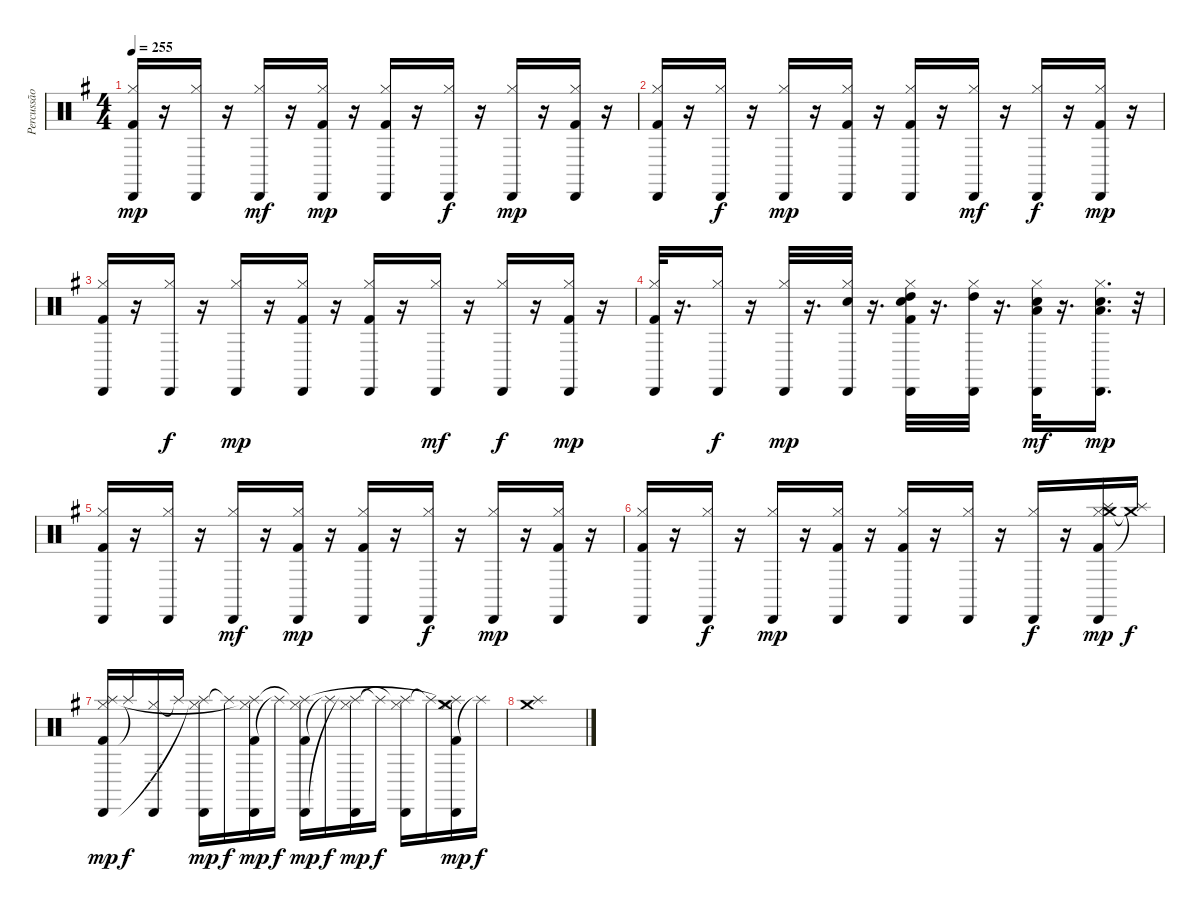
\track ("Percussão" "Percussão") {instrument percussion}
\staff {score}
\articulation defaults
\ts (4 4)
\tempo 255
\clef neutral
\ks g
("Kick (hit) 2" "Hi-Hat (closed)" "Cabasa (hit)").16{dy mp} r.16 ("Hi-Hat (closed)" "Cabasa (hit)").16 r.16 ("Hi-Hat (closed)" "Cabasa (hit)").16{dy mf} r.16 ("Kick (hit) 2" "Hi-Hat (closed)" "Cabasa (hit)").16{dy mp} r.16 ("Kick (hit) 2" "Hi-Hat (closed)" "Cabasa (hit)").16 r.16 ("Hi-Hat (closed)" "Cabasa (hit)").16{dy f} r.16 ("Hi-Hat (closed)" "Cabasa (hit)").16{dy mp} r.16 ("Kick (hit) 2" "Hi-Hat (closed)" "Cabasa (hit)").16 r.16 |
("Kick (hit) 2" "Hi-Hat (closed)" "Cabasa (hit)").16 r.16 ("Hi-Hat (closed)" "Cabasa (hit)").16{dy f} r.16 ("Hi-Hat (closed)" "Cabasa (hit)").16{dy mp} r.16 ("Kick (hit) 2" "Hi-Hat (closed)" "Cabasa (hit)").16 r.16 ("Kick (hit) 2" "Hi-Hat (closed)" "Cabasa (hit)").16 r.16 ("Hi-Hat (closed)" "Cabasa (hit)").16{dy mf} r.16 ("Hi-Hat (closed)" "Cabasa (hit)").16{dy f} r.16 ("Kick (hit) 2" "Hi-Hat (closed)" "Cabasa (hit)").16{dy mp} r.16 |
("Kick (hit) 2" "Hi-Hat (closed)" "Cabasa (hit)").16 r.16 ("Hi-Hat (closed)" "Cabasa (hit)").16{dy f} r.16 ("Hi-Hat (closed)" "Cabasa (hit)").16{dy mp} r.16 ("Kick (hit) 2" "Hi-Hat (closed)" "Cabasa (hit)").16 r.16 ("Kick (hit) 2" "Hi-Hat (closed)" "Cabasa (hit)").16 r.16 ("Hi-Hat (closed)" "Cabasa (hit)").16{dy mf} r.16 ("Hi-Hat (closed)" "Cabasa (hit)").16{dy f} r.16 ("Kick (hit) 2" "Hi-Hat (closed)" "Cabasa (hit)").16{dy mp} r.16 |
("Kick (hit) 2" "Hi-Hat (closed)" "Cabasa (hit)").32 r.16{d} ("Hi-Hat (closed)" "Cabasa (hit)").16{dy f} r.16 ("Hi-Hat (closed)" "Cabasa (hit)").32{dy mp} r.16{d} ("Electric Snare (hit)" "Hi-Hat (closed)" "Cabasa (hit)").32 r.16{d} ("High Tom (hit)" "Electric Snare (hit)" "Kick (hit) 2" "Hi-Hat (closed)" "Cabasa (hit)").32 r.16{d} ("High Tom (hit)" "Hi-Hat (closed)" "Cabasa (hit)").32 r.16{d} ("Low Tom (hit)" "Electric Snare (hit)" "Hi-Hat (closed)" "Cabasa (hit)").32{dy mf} r.16{d} ("Low Tom (hit)" "Electric Snare (hit)" "Hi-Hat (closed)" "Cabasa (hit)").16{d dy mp} r.32 |
("Kick (hit) 2" "Hi-Hat (closed)" "Cabasa (hit)").16 r.16 ("Hi-Hat (closed)" "Cabasa (hit)").16 r.16 ("Hi-Hat (closed)" "Cabasa (hit)").16{dy mf} r.16 ("Kick (hit) 2" "Hi-Hat (closed)" "Cabasa (hit)").16{dy mp} r.16 ("Kick (hit) 2" "Hi-Hat (closed)" "Cabasa (hit)").16 r.16 ("Hi-Hat (closed)" "Cabasa (hit)").16{dy f} r.16 ("Hi-Hat (closed)" "Cabasa (hit)").16{dy mp} r.16 ("Kick (hit) 2" "Hi-Hat (closed)" "Cabasa (hit)").16 r.16 |
("Kick (hit) 2" "Hi-Hat (closed)" "Cabasa (hit)").16 r.16 ("Hi-Hat (closed)" "Cabasa (hit)").16{dy f} r.16 ("Hi-Hat (closed)" "Cabasa (hit)").16{dy mp} r.16 ("Kick (hit) 2" "Hi-Hat (closed)" "Cabasa (hit)").16 r.16 ("Kick (hit) 2" "Hi-Hat (closed)" "Cabasa (hit)").16 r.16 ("Hi-Hat (closed)" "Cabasa (hit)").16 r.16 ("Hi-Hat (closed)" "Cabasa (hit)").16{dy f} r.16 ("Kick (hit) 2" "Hi-Hat (closed)" "Cabasa (hit)" "Splash (hit)" "Crash medium (hit)").16{dy mp} ("Splash (hit)"{t} "Crash medium (hit)"{t}).16{dy f} |
("Kick (hit) 2" "Hi-Hat (closed)" "Cabasa (hit)" "Splash (hit)").16{dy mp} "Splash (hit)"{t}.16{dy f} ("Hi-Hat (closed)" "Cabasa (hit)").16 "Splash (hit)"{t}.16 ("Hi-Hat (closed)" "Cabasa (hit)" "Splash (hit)"{t}).16{dy mp} "Splash (hit)"{t}.16{dy f} ("Kick (hit) 2" "Hi-Hat (closed)" "Cabasa (hit)" "Splash (hit)"{t}).16{dy mp} "Splash (hit)"{t}.16{dy f} ("Kick (hit) 2" "Hi-Hat (closed)" "Cabasa (hit)" "Splash (hit)"{t}).16{dy mp} "Splash (hit)"{t}.16{dy f} ("Hi-Hat (closed)" "Cabasa (hit)" "Splash (hit)"{t}).16{dy mp} "Splash (hit)"{t}.16{dy f} ("Hi-Hat (closed)" "Cabasa (hit)" "Splash (hit)"{t}).16 "Splash (hit)"{t}.16 ("Kick (hit) 2" "Hi-Hat (closed)" "Cabasa (hit)" "Splash (hit)"{t} "Crash medium (hit)").16{dy mp} "Splash (hit)"{t}.16{dy f} |
("Splash (hit)" "Crash medium (hit)").1
